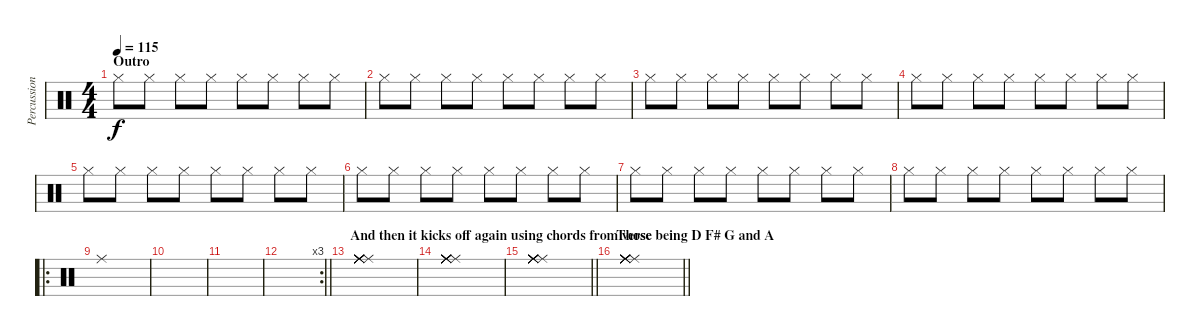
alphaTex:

\track ("Percussion" "Percussion") {instrument percussion}
\staff {score}
\articulation defaults
\ts (4 4)
\section ("" "Outro")
\tempo 115
\clef neutral
\ks c "Hi-Hat (closed)".8{dy f} "Hi-Hat (closed)".8 "Hi-Hat (closed)".8 "Hi-Hat (closed)".8 "Hi-Hat (closed)".8 "Hi-Hat (closed)".8 "Hi-Hat (closed)".8 "Hi-Hat (closed)".8
|
"Hi-Hat (closed)".8 "Hi-Hat (closed)".8 "Hi-Hat (closed)".8 "Hi-Hat (closed)".8 "Hi-Hat (closed)".8 "Hi-Hat (closed)".8 "Hi-Hat (closed)".8 "Hi-Hat (closed)".8 |
"Hi-Hat (closed)".8 "Hi-Hat (closed)".8 "Hi-Hat (closed)".8 "Hi-Hat (closed)".8 "Hi-Hat (closed)".8 "Hi-Hat (closed)".8 "Hi-Hat (closed)".8 "Hi-Hat (closed)".8 |
"Hi-Hat (closed)".8 "Hi-Hat (closed)".8 "Hi-Hat (closed)".8 "Hi-Hat (closed)".8 "Hi-Hat (closed)".8 "Hi-Hat (closed)".8 "Hi-Hat (closed)".8 "Hi-Hat (closed)".8 |
"Hi-Hat (closed)".8 "Hi-Hat (closed)".8 "Hi-Hat (closed)".8 "Hi-Hat (closed)".8 "Hi-Hat (closed)".8 "Hi-Hat (closed)".8 "Hi-Hat (closed)".8 "Hi-Hat (closed)".8 |
"Hi-Hat (closed)".8 "Hi-Hat (closed)".8 "Hi-Hat (closed)".8 "Hi-Hat (closed)".8 "Hi-Hat (closed)".8 "Hi-Hat (closed)".8 "Hi-Hat (closed)".8 "Hi-Hat (closed)".8 |
"Hi-Hat (closed)".8 "Hi-Hat (closed)".8 "Hi-Hat (closed)".8 "Hi-Hat (closed)".8 "Hi-Hat (closed)".8 "Hi-Hat (closed)".8 "Hi-Hat (closed)".8 "Hi-Hat (closed)".8 |
"Hi-Hat (closed)".8 "Hi-Hat (closed)".8 "Hi-Hat (closed)".8 "Hi-Hat (closed)".8 "Hi-Hat (closed)".8 "Hi-Hat (closed)".8 "Hi-Hat (closed)".8 "Hi-Hat (closed)".8 |
\ro "Ride (middle)".1
|
|
|
\rc 3
\barLineRight lightlight
|
\section ("" "And then it kicks off again using chords from verse")
("Ride (middle)" "Ride (middle)" "Ride (middle)" "Ride (middle)" "Ride (middle)" "Ride (middle)").1{bd 240} |
("Ride (middle)" "Ride (middle)" "Ride (middle)" "Ride (middle)" "Ride (middle)" "Ride (middle)").1{bd 240} |
\barLineRight lightlight
("Ride (middle)" "Ride (middle)" "Ride (middle)" "Ride (middle)" "Ride (middle)" "Ride (middle)").1{bd 240} |
\section ("" "Those being D F# G and A")
\barLineRight lightlight
("Ride (middle)" "Ride (middle)" "Ride (middle)" "Ride (middle)" "Ride (middle)" "Ride (middle)").1{bd 240}
